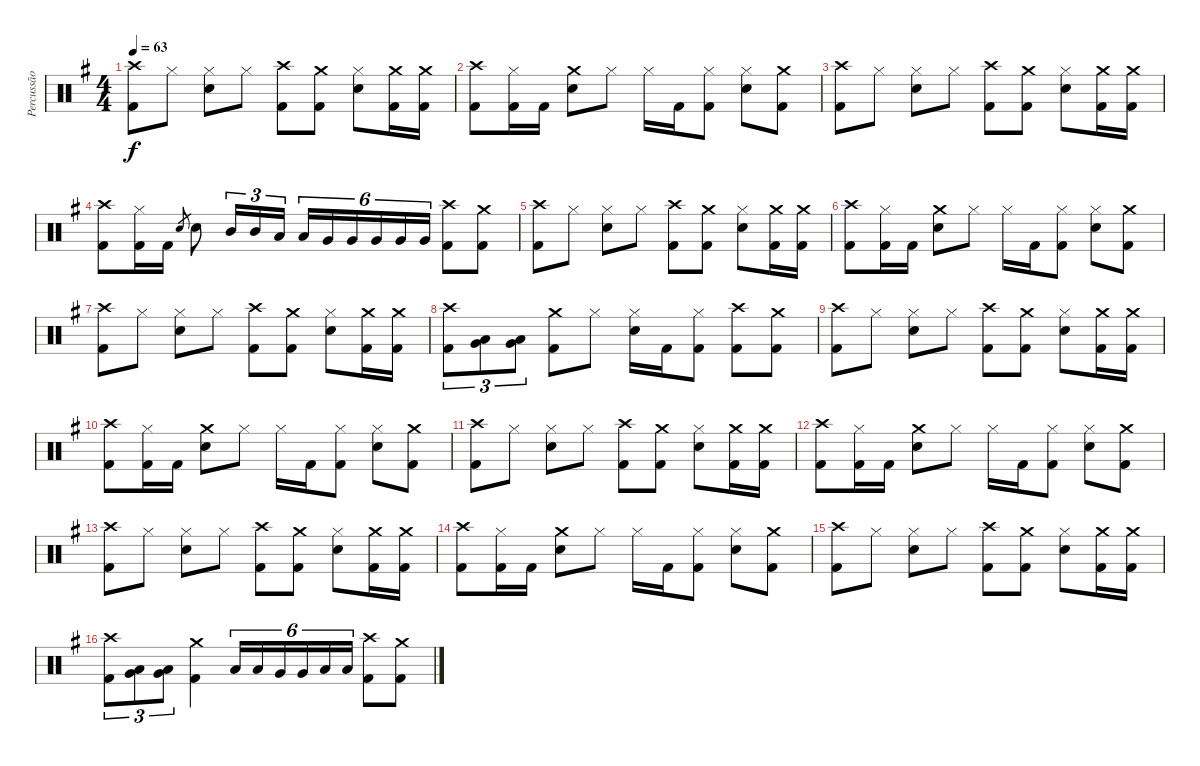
\track ("Percussão" "Percussão") {instrument percussion}
\staff {score}
\articulation defaults
\ts (4 4)
\tempo 63
\clef neutral
\ks g
("Crash high (hit)" "Kick (hit) 2").8{dy f} "Hi-Hat (closed)".8 ("Hi-Hat (closed)" "Electric Snare (hit)").8 "Hi-Hat (closed)".8 ("Crash high (hit)" "Kick (hit) 2").8 ("Crash medium (hit)" "Kick (hit) 2").8 ("Hi-Hat (closed)" "Electric Snare (hit)").8 ("Crash medium (hit)" "Kick (hit) 2").16 ("Crash medium (hit)" "Kick (hit) 2").16 |
("Crash high (hit)" "Kick (hit) 2").8 ("Hi-Hat (closed)" "Kick (hit) 2").16 "Kick (hit) 2".16 ("Crash medium (hit)" "Electric Snare (hit)").8 "Hi-Hat (closed)".8 "Hi-Hat (closed)".16 "Kick (hit) 2".16 ("Hi-Hat (closed)" "Kick (hit) 2").8 ("Hi-Hat (closed)" "Electric Snare (hit)").8 ("Crash medium (hit)" "Kick (hit) 2").8 |
("Crash high (hit)" "Kick (hit) 2").8 "Hi-Hat (closed)".8 ("Hi-Hat (closed)" "Electric Snare (hit)").8 "Hi-Hat (closed)".8 ("Crash high (hit)" "Kick (hit) 2").8 ("Crash medium (hit)" "Kick (hit) 2").8 ("Hi-Hat (closed)" "Electric Snare (hit)").8 ("Crash medium (hit)" "Kick (hit) 2").16 ("Crash medium (hit)" "Kick (hit) 2").16 |
("Crash high (hit)" "Kick (hit) 2").8 ("Hi-Hat (closed)" "Kick (hit) 2").16 "Kick (hit) 2".16 "Electric Snare (hit)".8{gr} "Electric Snare (hit)".8 "Mid Tom (hit)".16{tu (3 2)} "Mid Tom (hit)".16{tu (3 2)} "Low Tom (hit)".16{tu (3 2)} "Low Tom (hit)".16{tu (6 4)} "Very Low Tom (hit)".16{tu (6 4)} "Very Low Tom (hit)".16{tu (6 4)} "Very Low Tom (hit)".16{tu (6 4)} "Very Low Tom (hit)".16{tu (6 4)} "Very Low Tom (hit)".16{tu (6 4)} ("Crash high (hit)" "Kick (hit) 2").8 ("Crash medium (hit)" "Kick (hit) 2").8 |
("Crash high (hit)" "Kick (hit) 2").8 "Hi-Hat (closed)".8 ("Hi-Hat (closed)" "Electric Snare (hit)").8 "Hi-Hat (closed)".8 ("Crash high (hit)" "Kick (hit) 2").8 ("Crash medium (hit)" "Kick (hit) 2").8 ("Hi-Hat (closed)" "Electric Snare (hit)").8 ("Crash medium (hit)" "Kick (hit) 2").16 ("Crash medium (hit)" "Kick (hit) 2").16 |
("Crash high (hit)" "Kick (hit) 2").8 ("Hi-Hat (closed)" "Kick (hit) 2").16 "Kick (hit) 2".16 ("Crash medium (hit)" "Electric Snare (hit)").8 "Hi-Hat (closed)".8 "Hi-Hat (closed)".16 "Kick (hit) 2".16 ("Hi-Hat (closed)" "Kick (hit) 2").8 ("Hi-Hat (closed)" "Electric Snare (hit)").8 ("Crash medium (hit)" "Kick (hit) 2").8 |
("Crash high (hit)" "Kick (hit) 2").8 "Hi-Hat (closed)".8 ("Hi-Hat (closed)" "Electric Snare (hit)").8 "Hi-Hat (closed)".8 ("Crash high (hit)" "Kick (hit) 2").8 ("Crash medium (hit)" "Kick (hit) 2").8 ("Hi-Hat (closed)" "Electric Snare (hit)").8 ("Crash medium (hit)" "Kick (hit) 2").16 ("Crash medium (hit)" "Kick (hit) 2").16 |
("Crash high (hit)" "Kick (hit) 2").8{tu (3 2)} ("Low Tom (hit)" "Very Low Tom (hit)").8{tu (3 2)} ("Low Tom (hit)" "Very Low Tom (hit)").8{tu (3 2)} ("Crash medium (hit)" "Kick (hit) 2").8 "Hi-Hat (closed)".8 ("Hi-Hat (closed)" "Electric Snare (hit)").16 "Kick (hit) 2".16 ("Hi-Hat (closed)" "Kick (hit) 2").8 ("Crash high (hit)" "Kick (hit) 2").8 ("Crash medium (hit)" "Kick (hit) 2").8 |
("Crash high (hit)" "Kick (hit) 2").8 "Hi-Hat (closed)".8 ("Hi-Hat (closed)" "Electric Snare (hit)").8 "Hi-Hat (closed)".8 ("Crash high (hit)" "Kick (hit) 2").8 ("Crash medium (hit)" "Kick (hit) 2").8 ("Hi-Hat (closed)" "Electric Snare (hit)").8 ("Crash medium (hit)" "Kick (hit) 2").16 ("Crash medium (hit)" "Kick (hit) 2").16 |
("Crash high (hit)" "Kick (hit) 2").8 ("Hi-Hat (closed)" "Kick (hit) 2").16 "Kick (hit) 2".16 ("Crash medium (hit)" "Electric Snare (hit)").8 "Hi-Hat (closed)".8 "Hi-Hat (closed)".16 "Kick (hit) 2".16 ("Hi-Hat (closed)" "Kick (hit) 2").8 ("Hi-Hat (closed)" "Electric Snare (hit)").8 ("Crash medium (hit)" "Kick (hit) 2").8 |
("Crash high (hit)" "Kick (hit) 2").8 "Hi-Hat (closed)".8 ("Hi-Hat (closed)" "Electric Snare (hit)").8 "Hi-Hat (closed)".8 ("Crash high (hit)" "Kick (hit) 2").8 ("Crash medium (hit)" "Kick (hit) 2").8 ("Hi-Hat (closed)" "Electric Snare (hit)").8 ("Crash medium (hit)" "Kick (hit) 2").16 ("Crash medium (hit)" "Kick (hit) 2").16 |
("Crash high (hit)" "Kick (hit) 2").8 ("Hi-Hat (closed)" "Kick (hit) 2").16 "Kick (hit) 2".16 ("Crash medium (hit)" "Electric Snare (hit)").8 "Hi-Hat (closed)".8 "Hi-Hat (closed)".16 "Kick (hit) 2".16 ("Hi-Hat (closed)" "Kick (hit) 2").8 ("Hi-Hat (closed)" "Electric Snare (hit)").8 ("Crash medium (hit)" "Kick (hit) 2").8 |
("Crash high (hit)" "Kick (hit) 2").8 "Hi-Hat (closed)".8 ("Hi-Hat (closed)" "Electric Snare (hit)").8 "Hi-Hat (closed)".8 ("Crash high (hit)" "Kick (hit) 2").8 ("Crash medium (hit)" "Kick (hit) 2").8 ("Hi-Hat (closed)" "Electric Snare (hit)").8 ("Crash medium (hit)" "Kick (hit) 2").16 ("Crash medium (hit)" "Kick (hit) 2").16 |
("Crash high (hit)" "Kick (hit) 2").8 ("Hi-Hat (closed)" "Kick (hit) 2").16 "Kick (hit) 2".16 ("Crash medium (hit)" "Electric Snare (hit)").8 "Hi-Hat (closed)".8 "Hi-Hat (closed)".16 "Kick (hit) 2".16 ("Hi-Hat (closed)" "Kick (hit) 2").8 ("Hi-Hat (closed)" "Electric Snare (hit)").8 ("Crash medium (hit)" "Kick (hit) 2").8 |
("Crash high (hit)" "Kick (hit) 2").8 "Hi-Hat (closed)".8 ("Hi-Hat (closed)" "Electric Snare (hit)").8 "Hi-Hat (closed)".8 ("Crash high (hit)" "Kick (hit) 2").8 ("Crash medium (hit)" "Kick (hit) 2").8 ("Hi-Hat (closed)" "Electric Snare (hit)").8 ("Crash medium (hit)" "Kick (hit) 2").16 ("Crash medium (hit)" "Kick (hit) 2").16 |
("Crash high (hit)" "Kick (hit) 2").8{tu (3 2)} ("Low Tom (hit)" "Very Low Tom (hit)").8{tu (3 2)} ("Low Tom (hit)" "Very Low Tom (hit)").8{tu (3 2)} ("Crash medium (hit)" "Kick (hit) 2").4 "Low Tom (hit)".16{tu (6 4)} "Low Tom (hit)".16{tu (6 4)} "Very Low Tom (hit)".16{tu (6 4)} "Very Low Tom (hit)".16{tu (6 4)} "Low Floor Tom (hit)".16{tu (6 4)} "Low Floor Tom (hit)".16{tu (6 4)} ("Crash high (hit)" "Kick (hit) 2").8 ("Crash medium (hit)" "Kick (hit) 2").8
